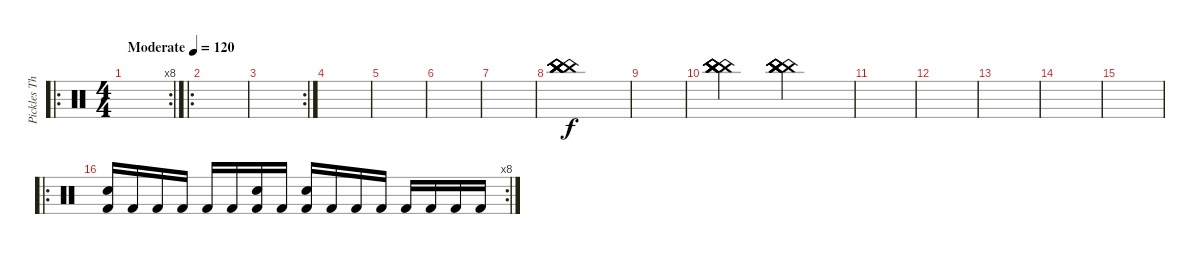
\track ("Pickles The Drummer" "Pickles Th") {instrument percussion}
\staff {score}
\articulation defaults
\ro
\rc 8
\ts (4 4)
\tempo (120 "Moderate")
\clef neutral
\ks c
|
\ro
|
\rc 2
|
|
|
|
|
("China (hit)" "China (hit)" "China (hit)" "China (hit)" "China (hit)" "China (hit)").1 |
|
("China (hit)" "China (hit)" "China (hit)" "China (hit)" "China (hit)" "China (hit)").2 ("China (hit)" "China (hit)" "China (hit)" "China (hit)" "China (hit)" "China (hit)").2 |
|
|
|
|
|
\ro
\rc 8
("Electric Snare (hit)" "Kick (hit) 2").16 "Kick (hit) 2".16 "Kick (hit) 2".16 "Kick (hit) 2".16 "Kick (hit) 2".16 "Kick (hit) 2".16 ("Electric Snare (hit)" "Kick (hit) 2").16 "Kick (hit) 2".16 ("Snare (hit) 2" "Kick (hit) 2").16 "Kick (hit) 2".16 "Kick (hit) 2".16 "Kick (hit) 2".16 "Kick (hit) 2".16 "Kick (hit) 2".16 "Kick (hit) 2".16 "Kick (hit) 2".16
